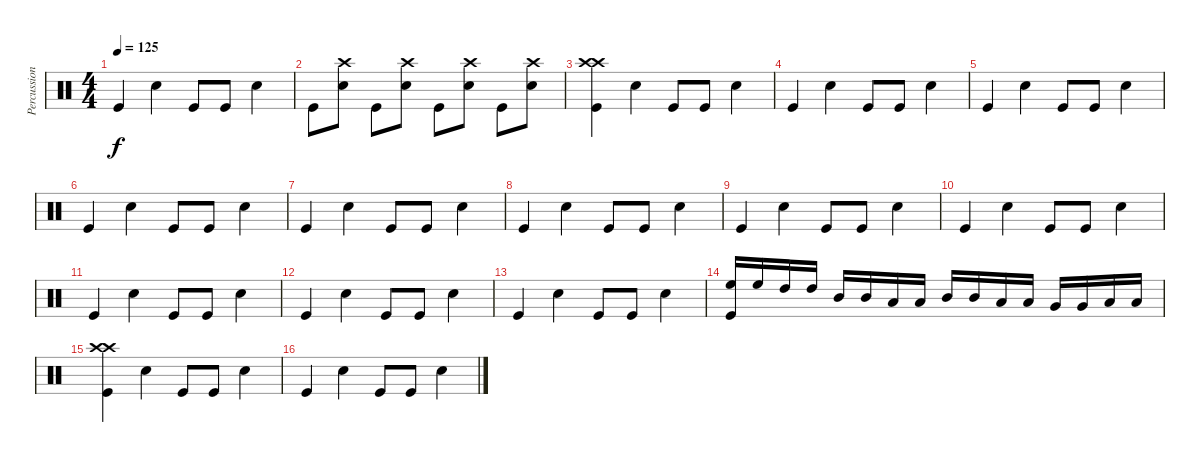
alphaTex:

\track ("Percussion" "Percussion") {instrument percussion}
\staff {score}
\articulation defaults
\ts (4 4)
\tempo 125
\clef neutral
\ks c "Kick (hit)".4{dy f} "Snare (hit) 2".4 "Kick (hit)".8 "Kick (hit)".8 "Snare (hit) 2".4
|
"Kick (hit)".8 ("Crash high (hit)" "Snare (hit) 2").8 "Kick (hit)".8 ("Crash high (hit)" "Snare (hit) 2").8 "Kick (hit)".8 ("Crash high (hit)" "Snare (hit) 2").8 "Kick (hit)".8 ("Crash high (hit)" "Snare (hit) 2").8 |
("Crash high (hit)" "Crash high (hit)" "Kick (hit)").4 "Snare (hit) 2".4 "Kick (hit)".8 "Kick (hit)".8 "Snare (hit) 2".4 |
"Kick (hit)".4 "Snare (hit) 2".4 "Kick (hit)".8 "Kick (hit)".8 "Snare (hit) 2".4 |
"Kick (hit)".4 "Snare (hit) 2".4 "Kick (hit)".8 "Kick (hit)".8 "Snare (hit) 2".4 |
"Kick (hit)".4 "Snare (hit) 2".4 "Kick (hit)".8 "Kick (hit)".8 "Snare (hit) 2".4 |
"Kick (hit)".4 "Snare (hit) 2".4 "Kick (hit)".8 "Kick (hit)".8 "Snare (hit) 2".4 |
"Kick (hit)".4 "Snare (hit) 2".4 "Kick (hit)".8 "Kick (hit)".8 "Snare (hit) 2".4 |
"Kick (hit)".4 "Snare (hit) 2".4 "Kick (hit)".8 "Kick (hit)".8 "Snare (hit) 2".4 |
"Kick (hit)".4 "Snare (hit) 2".4 "Kick (hit)".8 "Kick (hit)".8 "Snare (hit) 2".4 |
"Kick (hit)".4 "Snare (hit) 2".4 "Kick (hit)".8 "Kick (hit)".8 "Snare (hit) 2".4 |
"Kick (hit)".4 "Snare (hit) 2".4 "Kick (hit)".8 "Kick (hit)".8 "Snare (hit) 2".4 |
"Kick (hit)".4 "Snare (hit) 2".4 "Kick (hit)".8 "Kick (hit)".8 "Snare (hit) 2".4 |
("High Floor Tom (hit)" "Kick (hit)").16 "High Floor Tom (hit)".16 "High Tom (hit)".16 "High Tom (hit)".16 "Mid Tom (hit)".16 "Mid Tom (hit)".16 "Low Tom (hit)".16 "Low Tom (hit)".16 "Mid Tom (hit)".16 "Mid Tom (hit)".16 "Low Tom (hit)".16 "Low Tom (hit)".16 "Very Low Tom (hit)".16 "Very Low Tom (hit)".16 "Low Floor Tom (hit)".16 "Low Floor Tom (hit)".16 |
("Crash high (hit)" "Crash high (hit)" "Kick (hit)").4 "Snare (hit) 2".4 "Kick (hit)".8 "Kick (hit)".8 "Snare (hit) 2".4 |
"Kick (hit)".4 "Snare (hit) 2".4 "Kick (hit)".8 "Kick (hit)".8 "Snare (hit) 2".4
